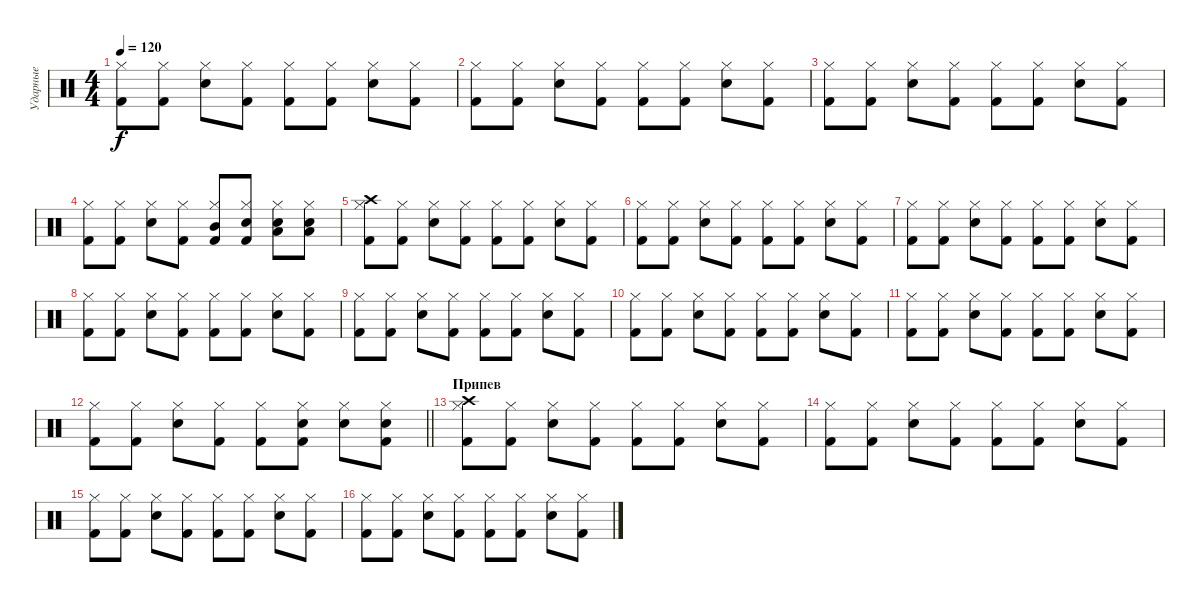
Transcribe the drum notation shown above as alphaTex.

\track ("Ударные" "Ударные") {instrument percussion}
\staff {score}
\articulation defaults
\ts (4 4)
\tempo 120
\clef neutral
\ks c
("Kick (hit) 2" "Hi-Hat (closed)").8{dy f} ("Kick (hit) 2" "Hi-Hat (closed)").8 ("Snare (hit) 2" "Hi-Hat (closed)").8 ("Kick (hit) 2" "Hi-Hat (closed)").8 ("Kick (hit) 2" "Hi-Hat (closed)").8 ("Kick (hit) 2" "Hi-Hat (closed)").8 ("Snare (hit) 2" "Hi-Hat (closed)").8 ("Kick (hit) 2" "Hi-Hat (closed)").8 |
("Kick (hit) 2" "Hi-Hat (closed)").8 ("Kick (hit) 2" "Hi-Hat (closed)").8 ("Snare (hit) 2" "Hi-Hat (closed)").8 ("Kick (hit) 2" "Hi-Hat (closed)").8 ("Kick (hit) 2" "Hi-Hat (closed)").8 ("Kick (hit) 2" "Hi-Hat (closed)").8 ("Snare (hit) 2" "Hi-Hat (closed)").8 ("Kick (hit) 2" "Hi-Hat (closed)").8 |
("Kick (hit) 2" "Hi-Hat (closed)").8 ("Kick (hit) 2" "Hi-Hat (closed)").8 ("Snare (hit) 2" "Hi-Hat (closed)").8 ("Kick (hit) 2" "Hi-Hat (closed)").8 ("Kick (hit) 2" "Hi-Hat (closed)").8 ("Kick (hit) 2" "Hi-Hat (closed)").8 ("Snare (hit) 2" "Hi-Hat (closed)").8 ("Kick (hit) 2" "Hi-Hat (closed)").8 |
("Kick (hit) 2" "Hi-Hat (closed)").8 ("Kick (hit) 2" "Hi-Hat (closed)").8 ("Snare (hit) 2" "Hi-Hat (closed)").8 ("Kick (hit) 2" "Hi-Hat (closed)").8 ("Kick (hit) 2" "Hi-Hat (closed)" "Mid Tom (hit)").8 ("Kick (hit) 2" "Hi-Hat (closed)" "Snare (hit) 2").8 ("Snare (hit) 2" "Hi-Hat (closed)" "Low Tom (hit)").8 ("Snare (hit) 2" "Hi-Hat (closed)" "Low Floor Tom (hit)").8 |
("Kick (hit) 2" "Hi-Hat (closed)" "Crash high (hit)").8 ("Kick (hit) 2" "Hi-Hat (closed)").8 ("Snare (hit) 2" "Hi-Hat (closed)").8 ("Kick (hit) 2" "Hi-Hat (closed)").8 ("Kick (hit) 2" "Hi-Hat (closed)").8 ("Kick (hit) 2" "Hi-Hat (closed)").8 ("Snare (hit) 2" "Hi-Hat (closed)").8 ("Kick (hit) 2" "Hi-Hat (closed)").8 |
("Kick (hit) 2" "Hi-Hat (closed)").8 ("Kick (hit) 2" "Hi-Hat (closed)").8 ("Snare (hit) 2" "Hi-Hat (closed)").8 ("Kick (hit) 2" "Hi-Hat (closed)").8 ("Kick (hit) 2" "Hi-Hat (closed)").8 ("Kick (hit) 2" "Hi-Hat (closed)").8 ("Snare (hit) 2" "Hi-Hat (closed)").8 ("Kick (hit) 2" "Hi-Hat (closed)").8 |
("Kick (hit) 2" "Hi-Hat (closed)").8 ("Kick (hit) 2" "Hi-Hat (closed)").8 ("Snare (hit) 2" "Hi-Hat (closed)").8 ("Kick (hit) 2" "Hi-Hat (closed)").8 ("Kick (hit) 2" "Hi-Hat (closed)").8 ("Kick (hit) 2" "Hi-Hat (closed)").8 ("Snare (hit) 2" "Hi-Hat (closed)").8 ("Kick (hit) 2" "Hi-Hat (closed)").8 |
("Kick (hit) 2" "Hi-Hat (closed)").8 ("Kick (hit) 2" "Hi-Hat (closed)").8 ("Snare (hit) 2" "Hi-Hat (closed)").8 ("Kick (hit) 2" "Hi-Hat (closed)").8 ("Kick (hit) 2" "Hi-Hat (closed)").8 ("Kick (hit) 2" "Hi-Hat (closed)").8 ("Snare (hit) 2" "Hi-Hat (closed)").8 ("Kick (hit) 2" "Hi-Hat (closed)").8 |
("Kick (hit) 2" "Hi-Hat (closed)").8 ("Kick (hit) 2" "Hi-Hat (closed)").8 ("Snare (hit) 2" "Hi-Hat (closed)").8 ("Kick (hit) 2" "Hi-Hat (closed)").8 ("Kick (hit) 2" "Hi-Hat (closed)").8 ("Kick (hit) 2" "Hi-Hat (closed)").8 ("Snare (hit) 2" "Hi-Hat (closed)").8 ("Kick (hit) 2" "Hi-Hat (closed)").8 |
("Kick (hit) 2" "Hi-Hat (closed)").8 ("Kick (hit) 2" "Hi-Hat (closed)").8 ("Snare (hit) 2" "Hi-Hat (closed)").8 ("Kick (hit) 2" "Hi-Hat (closed)").8 ("Kick (hit) 2" "Hi-Hat (closed)").8 ("Kick (hit) 2" "Hi-Hat (closed)").8 ("Snare (hit) 2" "Hi-Hat (closed)").8 ("Kick (hit) 2" "Hi-Hat (closed)").8 |
("Kick (hit) 2" "Hi-Hat (closed)").8 ("Kick (hit) 2" "Hi-Hat (closed)").8 ("Snare (hit) 2" "Hi-Hat (closed)").8 ("Kick (hit) 2" "Hi-Hat (closed)").8 ("Kick (hit) 2" "Hi-Hat (closed)").8 ("Kick (hit) 2" "Hi-Hat (closed)").8 ("Snare (hit) 2" "Hi-Hat (closed)").8 ("Kick (hit) 2" "Hi-Hat (closed)").8 |
\barLineRight lightlight
("Kick (hit) 2" "Hi-Hat (closed)").8 ("Kick (hit) 2" "Hi-Hat (closed)").8 ("Snare (hit) 2" "Hi-Hat (closed)").8 ("Kick (hit) 2" "Hi-Hat (closed)").8 ("Kick (hit) 2" "Hi-Hat (closed)").8 ("Kick (hit) 2" "Hi-Hat (closed)" "Snare (hit) 2").8 ("Snare (hit) 2" "Hi-Hat (closed)").8 ("Kick (hit) 2" "Hi-Hat (closed)" "Snare (hit) 2").8 |
\section ("" "Припев")
("Kick (hit) 2" "Hi-Hat (closed)" "Crash high (hit)").8 ("Kick (hit) 2" "Hi-Hat (closed)").8 ("Snare (hit) 2" "Hi-Hat (closed)").8 ("Kick (hit) 2" "Hi-Hat (closed)").8 ("Kick (hit) 2" "Hi-Hat (closed)").8 ("Kick (hit) 2" "Hi-Hat (closed)").8 ("Snare (hit) 2" "Hi-Hat (closed)").8 ("Kick (hit) 2" "Hi-Hat (closed)").8 |
("Kick (hit) 2" "Hi-Hat (closed)").8 ("Kick (hit) 2" "Hi-Hat (closed)").8 ("Snare (hit) 2" "Hi-Hat (closed)").8 ("Kick (hit) 2" "Hi-Hat (closed)").8 ("Kick (hit) 2" "Hi-Hat (closed)").8 ("Kick (hit) 2" "Hi-Hat (closed)").8 ("Snare (hit) 2" "Hi-Hat (closed)").8 ("Kick (hit) 2" "Hi-Hat (closed)").8 |
("Kick (hit) 2" "Hi-Hat (closed)").8 ("Kick (hit) 2" "Hi-Hat (closed)").8 ("Snare (hit) 2" "Hi-Hat (closed)").8 ("Kick (hit) 2" "Hi-Hat (closed)").8 ("Kick (hit) 2" "Hi-Hat (closed)").8 ("Kick (hit) 2" "Hi-Hat (closed)").8 ("Snare (hit) 2" "Hi-Hat (closed)").8 ("Kick (hit) 2" "Hi-Hat (closed)").8 |
("Kick (hit) 2" "Hi-Hat (closed)").8 ("Kick (hit) 2" "Hi-Hat (closed)").8 ("Snare (hit) 2" "Hi-Hat (closed)").8 ("Kick (hit) 2" "Hi-Hat (closed)").8 ("Kick (hit) 2" "Hi-Hat (closed)").8 ("Kick (hit) 2" "Hi-Hat (closed)").8 ("Snare (hit) 2" "Hi-Hat (closed)").8 ("Kick (hit) 2" "Hi-Hat (closed)").8
